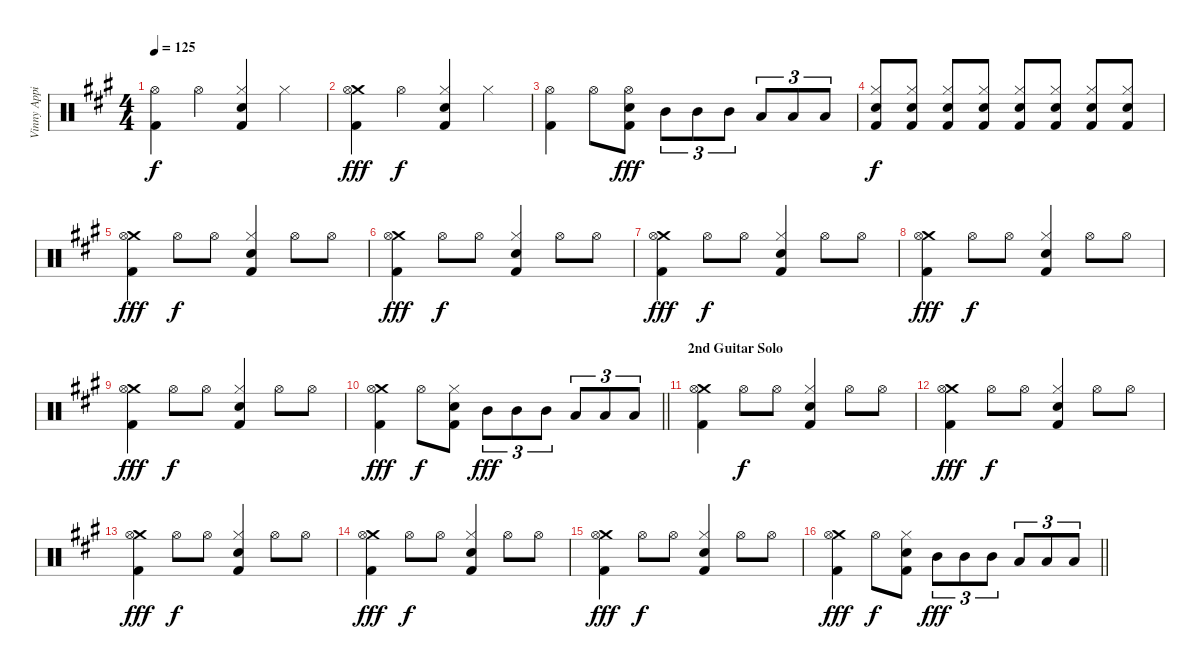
\track ("Vinny Appice" "Vinny Appi") {instrument percussion}
\staff {score}
\articulation defaults
\ts (4 4)
\tempo 125
\clef neutral
\ks a
("Hi-Hat (open)" "Kick (hit) 2").4{dy f} "Hi-Hat (open)".4 ("Hi-Hat (closed)" "Snare (hit) 2" "Kick (hit) 2").4 "Hi-Hat (closed)".4 |
("Crash medium (hit)" "Hi-Hat (open)" "Kick (hit) 2").4{dy fff} "Hi-Hat (open)".4{dy f} ("Hi-Hat (closed)" "Snare (hit) 2" "Kick (hit) 2").4 "Hi-Hat (closed)".4 |
("Hi-Hat (open)" "Kick (hit) 2").4 "Hi-Hat (open)".8 ("Hi-Hat (open)" "Snare (hit) 2" "Kick (hit) 2").8{dy fff} "Mid Tom (hit)".8{tu (3 2)} "Mid Tom (hit)".8{tu (3 2)} "Mid Tom (hit)".8{tu (3 2)} "Low Tom (hit)".8{tu (3 2)} "Low Tom (hit)".8{tu (3 2)} "Low Tom (hit)".8{tu (3 2)} |
("Hi-Hat (closed)" "Snare (hit) 2" "Kick (hit) 2").8{dy f} ("Hi-Hat (closed)" "Snare (hit) 2" "Kick (hit) 2").8 ("Hi-Hat (closed)" "Snare (hit) 2" "Kick (hit) 2").8 ("Hi-Hat (closed)" "Snare (hit) 2" "Kick (hit) 2").8 ("Hi-Hat (closed)" "Snare (hit) 2" "Kick (hit) 2").8 ("Hi-Hat (closed)" "Snare (hit) 2" "Kick (hit) 2").8 ("Hi-Hat (closed)" "Snare (hit) 2" "Kick (hit) 2").8 ("Hi-Hat (closed)" "Snare (hit) 2" "Kick (hit) 2").8 |
("Crash medium (hit)" "Hi-Hat (open)" "Kick (hit) 2").4{dy fff} "Hi-Hat (open)".8{dy f} "Hi-Hat (open)".8 ("Hi-Hat (closed)" "Snare (hit) 2" "Kick (hit) 2").4 "Hi-Hat (open)".8 "Hi-Hat (open)".8 |
("Crash medium (hit)" "Hi-Hat (open)" "Kick (hit) 2").4{dy fff} "Hi-Hat (open)".8{dy f} "Hi-Hat (open)".8 ("Hi-Hat (closed)" "Snare (hit) 2" "Kick (hit) 2").4 "Hi-Hat (open)".8 "Hi-Hat (open)".8 |
("Crash medium (hit)" "Hi-Hat (open)" "Kick (hit) 2").4{dy fff} "Hi-Hat (open)".8{dy f} "Hi-Hat (open)".8 ("Hi-Hat (closed)" "Snare (hit) 2" "Kick (hit) 2").4 "Hi-Hat (open)".8 "Hi-Hat (open)".8 |
("Crash medium (hit)" "Hi-Hat (open)" "Kick (hit) 2").4{dy fff} "Hi-Hat (open)".8{dy f} "Hi-Hat (open)".8 ("Hi-Hat (closed)" "Snare (hit) 2" "Kick (hit) 2").4 "Hi-Hat (open)".8 "Hi-Hat (open)".8 |
("Crash medium (hit)" "Hi-Hat (open)" "Kick (hit) 2").4{dy fff} "Hi-Hat (open)".8{dy f} "Hi-Hat (open)".8 ("Hi-Hat (closed)" "Snare (hit) 2" "Kick (hit) 2").4 "Hi-Hat (open)".8 "Hi-Hat (open)".8 |
\barLineRight lightlight
("Crash medium (hit)" "Hi-Hat (open)" "Kick (hit) 2").4{dy fff} "Hi-Hat (open)".8{dy f} ("Hi-Hat (closed)" "Snare (hit) 2" "Kick (hit) 2").8 "Mid Tom (hit)".8{tu (3 2) dy fff} "Mid Tom (hit)".8{tu (3 2)} "Mid Tom (hit)".8{tu (3 2)} "Low Tom (hit)".8{tu (3 2)} "Low Tom (hit)".8{tu (3 2)} "Low Tom (hit)".8{tu (3 2)} |
\section ("" "2nd Guitar Solo")
("Crash medium (hit)" "Hi-Hat (open)" "Kick (hit) 2").4 "Hi-Hat (open)".8{dy f} "Hi-Hat (open)".8 ("Hi-Hat (closed)" "Snare (hit) 2" "Kick (hit) 2").4 "Hi-Hat (open)".8 "Hi-Hat (open)".8 |
("Crash medium (hit)" "Hi-Hat (open)" "Kick (hit) 2").4{dy fff} "Hi-Hat (open)".8{dy f} "Hi-Hat (open)".8 ("Hi-Hat (closed)" "Snare (hit) 2" "Kick (hit) 2").4 "Hi-Hat (open)".8 "Hi-Hat (open)".8 |
("Crash medium (hit)" "Hi-Hat (open)" "Kick (hit) 2").4{dy fff} "Hi-Hat (open)".8{dy f} "Hi-Hat (open)".8 ("Hi-Hat (closed)" "Snare (hit) 2" "Kick (hit) 2").4 "Hi-Hat (open)".8 "Hi-Hat (open)".8 |
("Crash medium (hit)" "Hi-Hat (open)" "Kick (hit) 2").4{dy fff} "Hi-Hat (open)".8{dy f} "Hi-Hat (open)".8 ("Hi-Hat (closed)" "Snare (hit) 2" "Kick (hit) 2").4 "Hi-Hat (open)".8 "Hi-Hat (open)".8 |
("Crash medium (hit)" "Hi-Hat (open)" "Kick (hit) 2").4{dy fff} "Hi-Hat (open)".8{dy f} "Hi-Hat (open)".8 ("Hi-Hat (closed)" "Snare (hit) 2" "Kick (hit) 2").4 "Hi-Hat (open)".8 "Hi-Hat (open)".8 |
\barLineRight lightlight
("Crash medium (hit)" "Hi-Hat (open)" "Kick (hit) 2").4{dy fff} "Hi-Hat (open)".8{dy f} ("Hi-Hat (closed)" "Snare (hit) 2" "Kick (hit) 2").8 "Mid Tom (hit)".8{tu (3 2) dy fff} "Mid Tom (hit)".8{tu (3 2)} "Mid Tom (hit)".8{tu (3 2)} "Low Tom (hit)".8{tu (3 2)} "Low Tom (hit)".8{tu (3 2)} "Low Tom (hit)".8{tu (3 2)}
